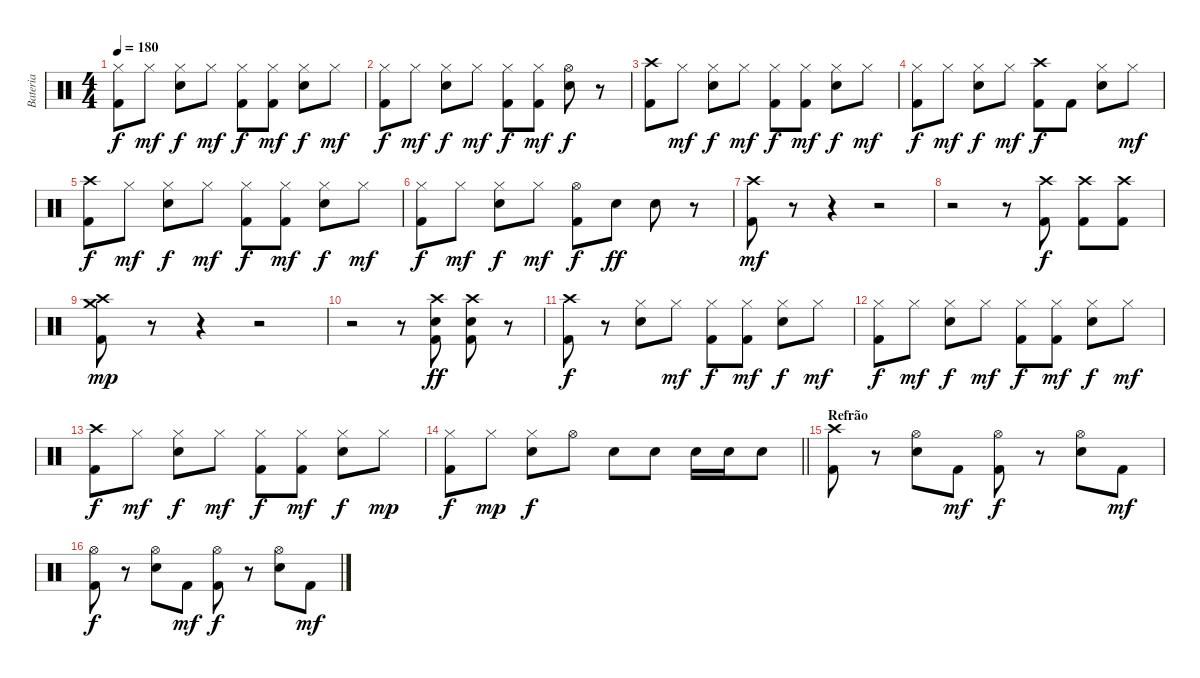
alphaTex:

\track ("Bateria" "Bateria") {instrument percussion}
\staff {score}
\articulation defaults
\ts (4 4)
\tempo 180
\clef neutral
\ks c
("Hi-Hat (closed)" "Kick (hit) 2").8{dy f} "Hi-Hat (closed)".8{dy mf} ("Hi-Hat (closed)" "Electric Snare (hit)").8{dy f} "Hi-Hat (closed)".8{dy mf} ("Hi-Hat (closed)" "Kick (hit) 2").8{dy f} ("Hi-Hat (closed)" "Kick (hit) 2").8{dy mf} ("Hi-Hat (closed)" "Electric Snare (hit)").8{dy f} "Hi-Hat (closed)".8{dy mf} |
("Hi-Hat (closed)" "Kick (hit) 2").8{dy f} "Hi-Hat (closed)".8{dy mf} ("Hi-Hat (closed)" "Electric Snare (hit)").8{dy f} "Hi-Hat (closed)".8{dy mf} ("Hi-Hat (closed)" "Kick (hit) 2").8{dy f} ("Hi-Hat (closed)" "Kick (hit) 2").8{dy mf} ("Hi-Hat (open)" "Electric Snare (hit)").8{dy f} r.8 |
("Crash high (hit)" "Kick (hit) 2").8 "Hi-Hat (closed)".8{dy mf} ("Hi-Hat (closed)" "Electric Snare (hit)").8{dy f} "Hi-Hat (closed)".8{dy mf} ("Hi-Hat (closed)" "Kick (hit) 2").8{dy f} ("Hi-Hat (closed)" "Kick (hit) 2").8{dy mf} ("Hi-Hat (closed)" "Electric Snare (hit)").8{dy f} "Hi-Hat (closed)".8{dy mf} |
("Hi-Hat (closed)" "Kick (hit) 2").8{dy f} "Hi-Hat (closed)".8{dy mf} ("Hi-Hat (closed)" "Electric Snare (hit)").8{dy f} "Hi-Hat (closed)".8{dy mf} ("Crash high (hit)" "Kick (hit) 2").8{dy f} "Kick (hit) 2".8 ("Hi-Hat (closed)" "Electric Snare (hit)").8 "Hi-Hat (closed)".8{dy mf} |
("Crash high (hit)" "Kick (hit) 2").8{dy f} "Hi-Hat (closed)".8{dy mf} ("Hi-Hat (closed)" "Electric Snare (hit)").8{dy f} "Hi-Hat (closed)".8{dy mf} ("Hi-Hat (closed)" "Kick (hit) 2").8{dy f} ("Hi-Hat (closed)" "Kick (hit) 2").8{dy mf} ("Hi-Hat (closed)" "Electric Snare (hit)").8{dy f} "Hi-Hat (closed)".8{dy mf} |
("Hi-Hat (closed)" "Kick (hit) 2").8{dy f} "Hi-Hat (closed)".8{dy mf} ("Hi-Hat (closed)" "Electric Snare (hit)").8{dy f} "Hi-Hat (closed)".8{dy mf} ("Hi-Hat (open)" "Kick (hit) 2").8{dy f} "Electric Snare (hit)".8{dy ff} "Electric Snare (hit)".8 r.8 |
("Crash high (hit)" "Kick (hit) 2").8{dy mf} r.8 r.4 r.2 |
r.2 r.8 ("Crash high (hit)" "Kick (hit) 2").8{dy f} ("Crash high (hit)" "Kick (hit) 2").8 ("Crash high (hit)" "Kick (hit) 2").8 |
("Crash high (hit)" "Crash medium (hit)" "Kick (hit) 2").8{dy mp} r.8 r.4 r.2 |
r.2 r.8 ("Crash high (hit)" "Electric Snare (hit)" "Kick (hit) 2").8{dy ff} ("Crash high (hit)" "Electric Snare (hit)" "Kick (hit) 2").8 r.8 |
("Crash high (hit)" "Kick (hit) 2").8{dy f} r.8 ("Hi-Hat (closed)" "Electric Snare (hit)").8 "Hi-Hat (closed)".8{dy mf} ("Hi-Hat (closed)" "Kick (hit) 2").8{dy f} ("Hi-Hat (closed)" "Kick (hit) 2").8{dy mf} ("Hi-Hat (closed)" "Electric Snare (hit)").8{dy f} "Hi-Hat (closed)".8{dy mf} |
("Hi-Hat (closed)" "Kick (hit) 2").8{dy f} "Hi-Hat (closed)".8{dy mf} ("Hi-Hat (closed)" "Electric Snare (hit)").8{dy f} "Hi-Hat (closed)".8{dy mf} ("Hi-Hat (closed)" "Kick (hit) 2").8{dy f} ("Hi-Hat (closed)" "Kick (hit) 2").8{dy mf} ("Hi-Hat (closed)" "Electric Snare (hit)").8{dy f} "Hi-Hat (closed)".8{dy mf} |
("Crash high (hit)" "Kick (hit) 2").8{dy f} "Hi-Hat (closed)".8{dy mf} ("Hi-Hat (closed)" "Electric Snare (hit)").8{dy f} "Hi-Hat (closed)".8{dy mf} ("Hi-Hat (closed)" "Kick (hit) 2").8{dy f} ("Hi-Hat (closed)" "Kick (hit) 2").8{dy mf} ("Hi-Hat (closed)" "Electric Snare (hit)").8{dy f} "Hi-Hat (closed)".8{dy mp} |
\barLineRight lightlight
("Hi-Hat (closed)" "Kick (hit) 2").8{dy f} "Hi-Hat (closed)".8{dy mp} ("Hi-Hat (closed)" "Electric Snare (hit)").8{dy f} "Hi-Hat (open)".8 "Electric Snare (hit)".8 "Electric Snare (hit)".8 "Electric Snare (hit)".16 "Electric Snare (hit)".16 "Electric Snare (hit)".8 |
\section ("" "Refrão")
("Crash high (hit)" "Kick (hit) 2").8 r.8 ("Hi-Hat (open)" "Electric Snare (hit)").8 "Kick (hit) 2".8{dy mf} ("Hi-Hat (open)" "Kick (hit) 2").8{dy f} r.8 ("Hi-Hat (open)" "Electric Snare (hit)").8 "Kick (hit) 2".8{dy mf} |
("Hi-Hat (open)" "Kick (hit) 2").8{dy f} r.8 ("Hi-Hat (open)" "Electric Snare (hit)").8 "Kick (hit) 2".8{dy mf} ("Hi-Hat (open)" "Kick (hit) 2").8{dy f} r.8 ("Hi-Hat (open)" "Electric Snare (hit)").8 "Kick (hit) 2".8{dy mf}
